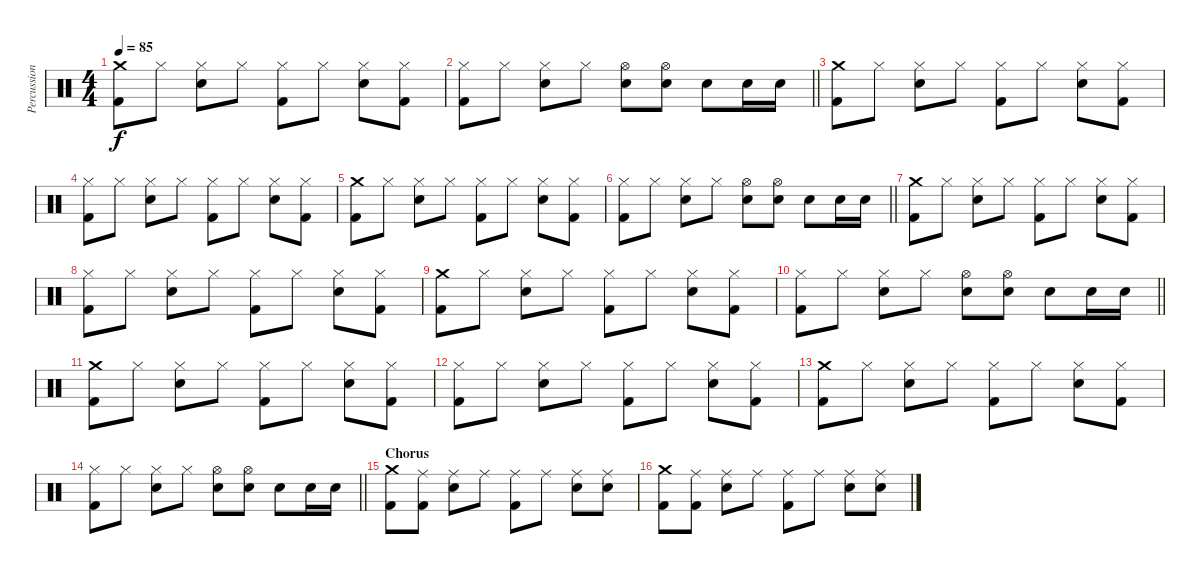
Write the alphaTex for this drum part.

\track ("Percussion" "Percussion") {instrument percussion}
\staff {score}
\articulation defaults
\ts (4 4)
\tempo 85
\clef neutral
\ks c
("Crash medium (hit)" "Kick (hit) 2").8{dy f} "Hi-Hat (closed)".8 ("Hi-Hat (closed)" "Electric Snare (hit)").8 "Hi-Hat (closed)".8 ("Hi-Hat (closed)" "Kick (hit) 2").8 "Hi-Hat (closed)".8 ("Hi-Hat (closed)" "Electric Snare (hit)").8 ("Hi-Hat (closed)" "Kick (hit) 2").8 |
\barLineRight lightlight
("Hi-Hat (closed)" "Kick (hit) 2").8 "Hi-Hat (closed)".8 ("Hi-Hat (closed)" "Electric Snare (hit)").8 "Hi-Hat (closed)".8 ("Hi-Hat (open)" "Electric Snare (hit)").8 ("Hi-Hat (open)" "Electric Snare (hit)").8 "Electric Snare (hit)".8 "Electric Snare (hit)".16 "Electric Snare (hit)".16 |
("Crash medium (hit)" "Kick (hit) 2").8 "Hi-Hat (closed)".8 ("Hi-Hat (closed)" "Electric Snare (hit)").8 "Hi-Hat (closed)".8 ("Hi-Hat (closed)" "Kick (hit) 2").8 "Hi-Hat (closed)".8 ("Hi-Hat (closed)" "Electric Snare (hit)").8 ("Hi-Hat (closed)" "Kick (hit) 2").8 |
("Hi-Hat (closed)" "Kick (hit) 2").8 "Hi-Hat (closed)".8 ("Hi-Hat (closed)" "Electric Snare (hit)").8 "Hi-Hat (closed)".8 ("Hi-Hat (closed)" "Kick (hit) 2").8 "Hi-Hat (closed)".8 ("Hi-Hat (closed)" "Electric Snare (hit)").8 ("Hi-Hat (closed)" "Kick (hit) 2").8 |
("Crash medium (hit)" "Kick (hit) 2").8 "Hi-Hat (closed)".8 ("Hi-Hat (closed)" "Electric Snare (hit)").8 "Hi-Hat (closed)".8 ("Hi-Hat (closed)" "Kick (hit) 2").8 "Hi-Hat (closed)".8 ("Hi-Hat (closed)" "Electric Snare (hit)").8 ("Hi-Hat (closed)" "Kick (hit) 2").8 |
\barLineRight lightlight
("Hi-Hat (closed)" "Kick (hit) 2").8 "Hi-Hat (closed)".8 ("Hi-Hat (closed)" "Electric Snare (hit)").8 "Hi-Hat (closed)".8 ("Hi-Hat (open)" "Electric Snare (hit)").8 ("Hi-Hat (open)" "Electric Snare (hit)").8 "Electric Snare (hit)".8 "Electric Snare (hit)".16 "Electric Snare (hit)".16 |
("Crash medium (hit)" "Kick (hit) 2").8 "Hi-Hat (closed)".8 ("Hi-Hat (closed)" "Electric Snare (hit)").8 "Hi-Hat (closed)".8 ("Hi-Hat (closed)" "Kick (hit) 2").8 "Hi-Hat (closed)".8 ("Hi-Hat (closed)" "Electric Snare (hit)").8 ("Hi-Hat (closed)" "Kick (hit) 2").8 |
("Hi-Hat (closed)" "Kick (hit) 2").8 "Hi-Hat (closed)".8 ("Hi-Hat (closed)" "Electric Snare (hit)").8 "Hi-Hat (closed)".8 ("Hi-Hat (closed)" "Kick (hit) 2").8 "Hi-Hat (closed)".8 ("Hi-Hat (closed)" "Electric Snare (hit)").8 ("Hi-Hat (closed)" "Kick (hit) 2").8 |
("Crash medium (hit)" "Kick (hit) 2").8 "Hi-Hat (closed)".8 ("Hi-Hat (closed)" "Electric Snare (hit)").8 "Hi-Hat (closed)".8 ("Hi-Hat (closed)" "Kick (hit) 2").8 "Hi-Hat (closed)".8 ("Hi-Hat (closed)" "Electric Snare (hit)").8 ("Hi-Hat (closed)" "Kick (hit) 2").8 |
\barLineRight lightlight
("Hi-Hat (closed)" "Kick (hit) 2").8 "Hi-Hat (closed)".8 ("Hi-Hat (closed)" "Electric Snare (hit)").8 "Hi-Hat (closed)".8 ("Hi-Hat (open)" "Electric Snare (hit)").8 ("Hi-Hat (open)" "Electric Snare (hit)").8 "Electric Snare (hit)".8 "Electric Snare (hit)".16 "Electric Snare (hit)".16 |
("Crash medium (hit)" "Kick (hit) 2").8 "Hi-Hat (closed)".8 ("Hi-Hat (closed)" "Electric Snare (hit)").8 "Hi-Hat (closed)".8 ("Hi-Hat (closed)" "Kick (hit) 2").8 "Hi-Hat (closed)".8 ("Hi-Hat (closed)" "Electric Snare (hit)").8 ("Hi-Hat (closed)" "Kick (hit) 2").8 |
("Hi-Hat (closed)" "Kick (hit) 2").8 "Hi-Hat (closed)".8 ("Hi-Hat (closed)" "Electric Snare (hit)").8 "Hi-Hat (closed)".8 ("Hi-Hat (closed)" "Kick (hit) 2").8 "Hi-Hat (closed)".8 ("Hi-Hat (closed)" "Electric Snare (hit)").8 ("Hi-Hat (closed)" "Kick (hit) 2").8 |
("Crash medium (hit)" "Kick (hit) 2").8 "Hi-Hat (closed)".8 ("Hi-Hat (closed)" "Electric Snare (hit)").8 "Hi-Hat (closed)".8 ("Hi-Hat (closed)" "Kick (hit) 2").8 "Hi-Hat (closed)".8 ("Hi-Hat (closed)" "Electric Snare (hit)").8 ("Hi-Hat (closed)" "Kick (hit) 2").8 |
\barLineRight lightlight
("Hi-Hat (closed)" "Kick (hit) 2").8 "Hi-Hat (closed)".8 ("Hi-Hat (closed)" "Electric Snare (hit)").8 "Hi-Hat (closed)".8 ("Hi-Hat (open)" "Electric Snare (hit)").8 ("Hi-Hat (open)" "Electric Snare (hit)").8 "Electric Snare (hit)".8 "Electric Snare (hit)".16 "Electric Snare (hit)".16 |
\section ("" "Chorus")
("Crash medium (hit)" "Kick (hit) 2").8 ("Ride (middle)" "Kick (hit) 2").8 ("Ride (middle)" "Electric Snare (hit)").8 "Ride (middle)".8 ("Ride (middle)" "Kick (hit) 2").8 "Ride (middle)".8 ("Ride (middle)" "Electric Snare (hit)").8 ("Ride (middle)" "Electric Snare (hit)").8 |
("Crash medium (hit)" "Kick (hit) 2").8 ("Ride (middle)" "Kick (hit) 2").8 ("Ride (middle)" "Electric Snare (hit)").8 "Ride (middle)".8 ("Ride (middle)" "Kick (hit) 2").8 "Ride (middle)".8 ("Ride (middle)" "Electric Snare (hit)").8 ("Ride (middle)" "Electric Snare (hit)").8
